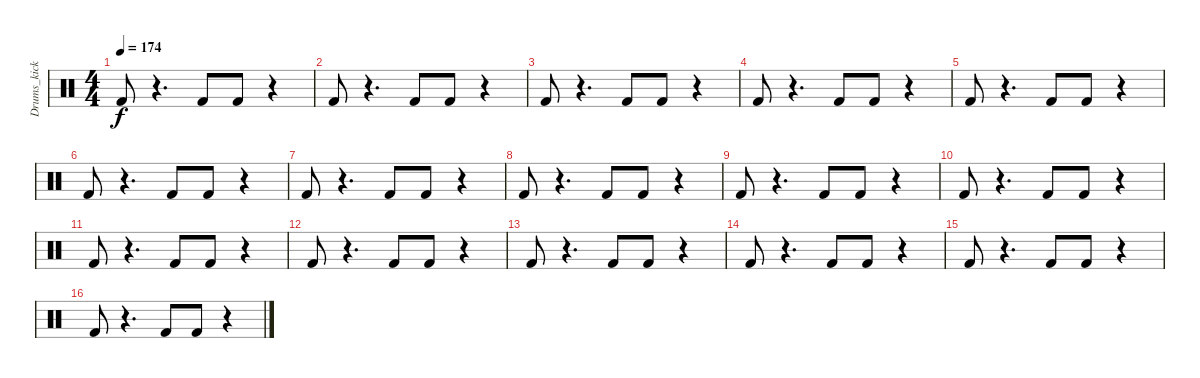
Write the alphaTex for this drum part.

\track ("Drums_kick" "Drums_kick") {instrument percussion}
\staff {score}
\articulation defaults
\ts (4 4)
\tempo 174
\clef neutral
\ks c "Kick (hit) 2".8{dy f}
r.4{d} "Kick (hit) 2".8 "Kick (hit) 2".8 r.4 |
"Kick (hit) 2".8 r.4{d} "Kick (hit) 2".8 "Kick (hit) 2".8 r.4 |
"Kick (hit) 2".8 r.4{d} "Kick (hit) 2".8 "Kick (hit) 2".8 r.4 |
"Kick (hit) 2".8 r.4{d} "Kick (hit) 2".8 "Kick (hit) 2".8 r.4 |
"Kick (hit) 2".8 r.4{d} "Kick (hit) 2".8 "Kick (hit) 2".8 r.4 |
"Kick (hit) 2".8 r.4{d} "Kick (hit) 2".8 "Kick (hit) 2".8 r.4 |
"Kick (hit) 2".8 r.4{d} "Kick (hit) 2".8 "Kick (hit) 2".8 r.4 |
"Kick (hit) 2".8 r.4{d} "Kick (hit) 2".8 "Kick (hit) 2".8 r.4 |
"Kick (hit) 2".8 r.4{d} "Kick (hit) 2".8 "Kick (hit) 2".8 r.4 |
"Kick (hit) 2".8 r.4{d} "Kick (hit) 2".8 "Kick (hit) 2".8 r.4 |
"Kick (hit) 2".8 r.4{d} "Kick (hit) 2".8 "Kick (hit) 2".8 r.4 |
"Kick (hit) 2".8 r.4{d} "Kick (hit) 2".8 "Kick (hit) 2".8 r.4 |
"Kick (hit) 2".8 r.4{d} "Kick (hit) 2".8 "Kick (hit) 2".8 r.4 |
"Kick (hit) 2".8 r.4{d} "Kick (hit) 2".8 "Kick (hit) 2".8 r.4 |
"Kick (hit) 2".8 r.4{d} "Kick (hit) 2".8 "Kick (hit) 2".8 r.4 |
"Kick (hit) 2".8 r.4{d} "Kick (hit) 2".8 "Kick (hit) 2".8 r.4
